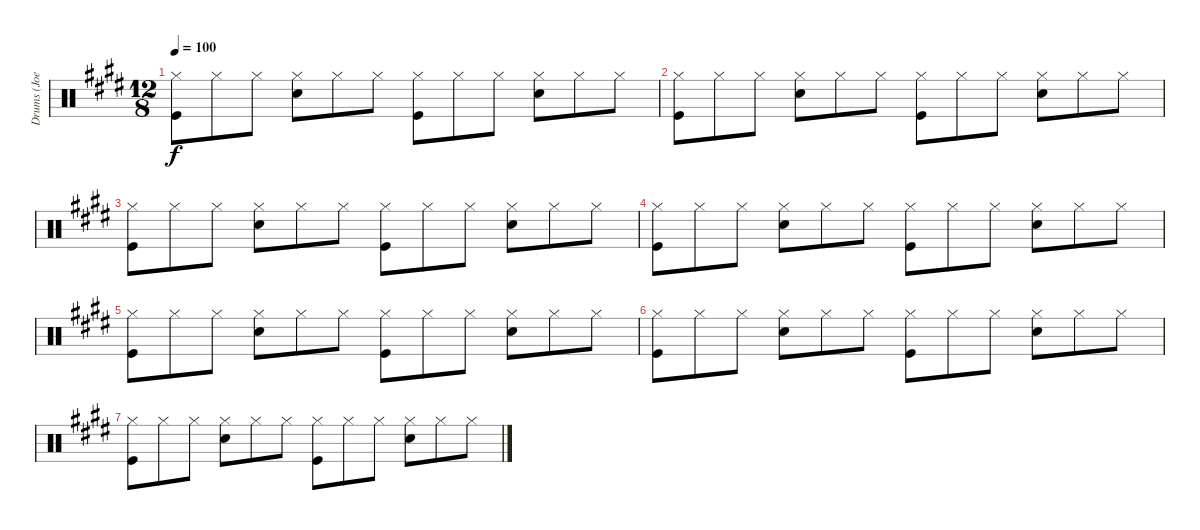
\track ("Drums (Joey Kramer)" "Drums (Joe") {instrument percussion}
\staff {score}
\articulation defaults
\ts (12 8)
\tempo 100
\clef neutral
\ks c#minor
("Hi-Hat (closed)" "Kick (hit)").8{dy f} "Hi-Hat (closed)".8 "Hi-Hat (closed)".8 ("Hi-Hat (closed)" "Electric Snare (hit)").8 "Hi-Hat (closed)".8 "Hi-Hat (closed)".8 ("Hi-Hat (closed)" "Kick (hit)").8 "Hi-Hat (closed)".8 "Hi-Hat (closed)".8 ("Hi-Hat (closed)" "Electric Snare (hit)").8 "Hi-Hat (closed)".8 "Hi-Hat (closed)".8 |
("Hi-Hat (closed)" "Kick (hit)").8 "Hi-Hat (closed)".8 "Hi-Hat (closed)".8 ("Hi-Hat (closed)" "Electric Snare (hit)").8 "Hi-Hat (closed)".8 "Hi-Hat (closed)".8 ("Hi-Hat (closed)" "Kick (hit)").8 "Hi-Hat (closed)".8 "Hi-Hat (closed)".8 ("Hi-Hat (closed)" "Electric Snare (hit)").8 "Hi-Hat (closed)".8 "Hi-Hat (closed)".8 |
("Hi-Hat (closed)" "Kick (hit)").8 "Hi-Hat (closed)".8 "Hi-Hat (closed)".8 ("Hi-Hat (closed)" "Electric Snare (hit)").8 "Hi-Hat (closed)".8 "Hi-Hat (closed)".8 ("Hi-Hat (closed)" "Kick (hit)").8 "Hi-Hat (closed)".8 "Hi-Hat (closed)".8 ("Hi-Hat (closed)" "Electric Snare (hit)").8 "Hi-Hat (closed)".8 "Hi-Hat (closed)".8 |
("Hi-Hat (closed)" "Kick (hit)").8 "Hi-Hat (closed)".8 "Hi-Hat (closed)".8 ("Hi-Hat (closed)" "Electric Snare (hit)").8 "Hi-Hat (closed)".8 "Hi-Hat (closed)".8 ("Hi-Hat (closed)" "Kick (hit)").8 "Hi-Hat (closed)".8 "Hi-Hat (closed)".8 ("Hi-Hat (closed)" "Electric Snare (hit)").8 "Hi-Hat (closed)".8 "Hi-Hat (closed)".8 |
("Hi-Hat (closed)" "Kick (hit)").8 "Hi-Hat (closed)".8 "Hi-Hat (closed)".8 ("Hi-Hat (closed)" "Electric Snare (hit)").8 "Hi-Hat (closed)".8 "Hi-Hat (closed)".8 ("Hi-Hat (closed)" "Kick (hit)").8 "Hi-Hat (closed)".8 "Hi-Hat (closed)".8 ("Hi-Hat (closed)" "Electric Snare (hit)").8 "Hi-Hat (closed)".8 "Hi-Hat (closed)".8 |
("Hi-Hat (closed)" "Kick (hit)").8 "Hi-Hat (closed)".8 "Hi-Hat (closed)".8 ("Hi-Hat (closed)" "Electric Snare (hit)").8 "Hi-Hat (closed)".8 "Hi-Hat (closed)".8 ("Hi-Hat (closed)" "Kick (hit)").8 "Hi-Hat (closed)".8 "Hi-Hat (closed)".8 ("Hi-Hat (closed)" "Electric Snare (hit)").8 "Hi-Hat (closed)".8 "Hi-Hat (closed)".8 |
("Hi-Hat (closed)" "Kick (hit)").8 "Hi-Hat (closed)".8 "Hi-Hat (closed)".8 ("Hi-Hat (closed)" "Electric Snare (hit)").8 "Hi-Hat (closed)".8 "Hi-Hat (closed)".8 ("Hi-Hat (closed)" "Kick (hit)").8 "Hi-Hat (closed)".8 "Hi-Hat (closed)".8 ("Hi-Hat (closed)" "Electric Snare (hit)").8 "Hi-Hat (closed)".8 "Hi-Hat (closed)".8
